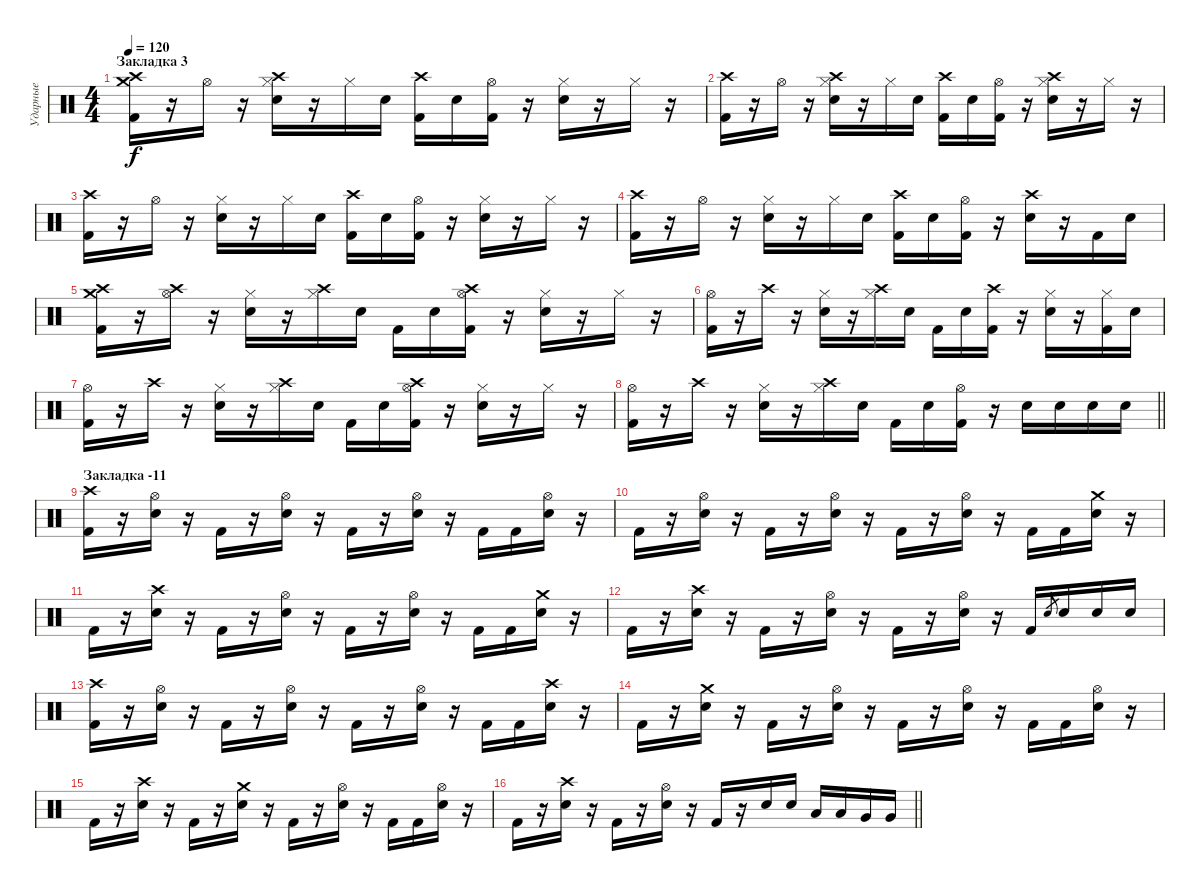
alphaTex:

\track ("Ударные" "Ударные") {instrument percussion}
\staff {score}
\articulation defaults
\ts (4 4)
\section ("" "Закладка 3")
\tempo 120
\clef neutral
\ks c
("Crash medium (hit)" "Crash high (hit)" "Kick (hit) 2").16{dy f} r.16 "Hi-Hat (open)".16 r.16 ("Crash high (hit)" "Hi-Hat (closed)" "Electric Snare (hit)").16 r.16 "Hi-Hat (closed)".16 "Electric Snare (hit)".16 ("Crash high (hit)" "Kick (hit) 2").16 "Electric Snare (hit)".16 ("Hi-Hat (open)" "Kick (hit) 2").16 r.16 ("Hi-Hat (closed)" "Electric Snare (hit)").16 r.16 "Hi-Hat (closed)".16 r.16 |
("Crash high (hit)" "Kick (hit) 2").16 r.16 "Hi-Hat (open)".16 r.16 ("Crash high (hit)" "Hi-Hat (closed)" "Electric Snare (hit)").16 r.16 "Hi-Hat (closed)".16 "Electric Snare (hit)".16 ("Crash high (hit)" "Kick (hit) 2").16 "Electric Snare (hit)".16 ("Hi-Hat (open)" "Kick (hit) 2").16 r.16 ("Crash high (hit)" "Hi-Hat (closed)" "Electric Snare (hit)").16 r.16 "Hi-Hat (closed)".16 r.16 |
("Crash high (hit)" "Kick (hit) 2").16 r.16 "Hi-Hat (open)".16 r.16 ("Hi-Hat (closed)" "Electric Snare (hit)").16 r.16 "Hi-Hat (closed)".16 "Electric Snare (hit)".16 ("Crash high (hit)" "Kick (hit) 2").16 "Electric Snare (hit)".16 ("Hi-Hat (open)" "Kick (hit) 2").16 r.16 ("Hi-Hat (closed)" "Electric Snare (hit)").16 r.16 "Hi-Hat (closed)".16 r.16 |
("Crash high (hit)" "Kick (hit) 2").16 r.16 "Hi-Hat (open)".16 r.16 ("Hi-Hat (closed)" "Electric Snare (hit)").16 r.16 "Hi-Hat (closed)".16 "Electric Snare (hit)".16 ("Crash high (hit)" "Kick (hit) 2").16 "Electric Snare (hit)".16 ("Hi-Hat (open)" "Kick (hit) 2").16 r.16 ("Crash high (hit)" "Electric Snare (hit)").16 r.16 "Kick (hit) 2".16 "Electric Snare (hit)".16 |
("Crash medium (hit)" "Crash high (hit)" "Kick (hit) 2").16 r.16 ("Crash high (hit)" "Hi-Hat (open)").16 r.16 ("Hi-Hat (closed)" "Electric Snare (hit)").16 r.16 ("Crash high (hit)" "Hi-Hat (closed)").16 "Electric Snare (hit)".16 "Kick (hit) 2".16 "Electric Snare (hit)".16 ("Crash high (hit)" "Hi-Hat (open)" "Kick (hit) 2").16 r.16 ("Hi-Hat (closed)" "Electric Snare (hit)").16 r.16 "Hi-Hat (closed)".16 r.16 |
("Hi-Hat (open)" "Kick (hit) 2").16 r.16 "Crash high (hit)".16 r.16 ("Hi-Hat (closed)" "Electric Snare (hit)").16 r.16 ("Crash high (hit)" "Hi-Hat (closed)").16 "Electric Snare (hit)".16 "Kick (hit) 2".16 "Electric Snare (hit)".16 ("Crash high (hit)" "Kick (hit) 2").16 r.16 ("Hi-Hat (closed)" "Electric Snare (hit)").16 r.16 ("Hi-Hat (closed)" "Kick (hit) 2").16 "Electric Snare (hit)".16 |
("Hi-Hat (open)" "Kick (hit) 2").16 r.16 "Crash high (hit)".16 r.16 ("Hi-Hat (closed)" "Electric Snare (hit)").16 r.16 ("Crash high (hit)" "Hi-Hat (closed)").16 "Electric Snare (hit)".16 "Kick (hit) 2".16 "Electric Snare (hit)".16 ("Crash high (hit)" "Hi-Hat (open)" "Kick (hit) 2").16 r.16 ("Hi-Hat (closed)" "Electric Snare (hit)").16 r.16 "Hi-Hat (closed)".16 r.16 |
\barLineRight lightlight
("Hi-Hat (open)" "Kick (hit) 2").16 r.16 "Crash high (hit)".16 r.16 ("Hi-Hat (closed)" "Electric Snare (hit)").16 r.16 ("Crash high (hit)" "Hi-Hat (closed)").16 "Electric Snare (hit)".16 "Kick (hit) 2".16 "Electric Snare (hit)".16 ("Hi-Hat (open)" "Kick (hit) 2").16 r.16 "Electric Snare (hit)".16 "Electric Snare (hit)".16 "Electric Snare (hit)".16 "Electric Snare (hit)".16 |
\section ("" "Закладка -11")
("Crash high (hit)" "Kick (hit) 2").16 r.16 ("Hi-Hat (open)" "Electric Snare (hit)").16 r.16 "Kick (hit) 2".16 r.16 ("Hi-Hat (open)" "Electric Snare (hit)").16 r.16 "Kick (hit) 2".16 r.16 ("Hi-Hat (open)" "Electric Snare (hit)").16 r.16 "Kick (hit) 2".16 "Kick (hit) 2".16 ("Hi-Hat (open)" "Electric Snare (hit)").16 r.16 |
"Kick (hit) 2".16 r.16 ("Hi-Hat (open)" "Electric Snare (hit)").16 r.16 "Kick (hit) 2".16 r.16 ("Hi-Hat (open)" "Electric Snare (hit)").16 r.16 "Kick (hit) 2".16 r.16 ("Hi-Hat (open)" "Electric Snare (hit)").16 r.16 "Kick (hit) 2".16 "Kick (hit) 2".16 ("Crash medium (hit)" "Electric Snare (hit)").16 r.16 |
"Kick (hit) 2".16 r.16 ("Crash high (hit)" "Electric Snare (hit)").16 r.16 "Kick (hit) 2".16 r.16 ("Hi-Hat (open)" "Electric Snare (hit)").16 r.16 "Kick (hit) 2".16 r.16 ("Hi-Hat (open)" "Electric Snare (hit)").16 r.16 "Kick (hit) 2".16 "Kick (hit) 2".16 ("Crash medium (hit)" "Electric Snare (hit)").16 r.16 |
"Kick (hit) 2".16 r.16 ("Crash high (hit)" "Electric Snare (hit)").16 r.16 "Kick (hit) 2".16 r.16 ("Hi-Hat (open)" "Electric Snare (hit)").16 r.16 "Kick (hit) 2".16 r.16 ("Hi-Hat (open)" "Electric Snare (hit)").16 r.16 "Kick (hit) 2".16 "Electric Snare (hit)".8{gr} "Electric Snare (hit)".16 "Electric Snare (hit)".16 "Electric Snare (hit)".16 |
("Crash high (hit)" "Kick (hit) 2").16 r.16 ("Hi-Hat (open)" "Electric Snare (hit)").16 r.16 "Kick (hit) 2".16 r.16 ("Hi-Hat (open)" "Electric Snare (hit)").16 r.16 "Kick (hit) 2".16 r.16 ("Hi-Hat (open)" "Electric Snare (hit)").16 r.16 "Kick (hit) 2".16 "Kick (hit) 2".16 ("Crash high (hit)" "Electric Snare (hit)").16 r.16 |
"Kick (hit) 2".16 r.16 ("Crash medium (hit)" "Electric Snare (hit)").16 r.16 "Kick (hit) 2".16 r.16 ("Hi-Hat (open)" "Electric Snare (hit)").16 r.16 "Kick (hit) 2".16 r.16 ("Hi-Hat (open)" "Electric Snare (hit)").16 r.16 "Kick (hit) 2".16 "Kick (hit) 2".16 ("Hi-Hat (open)" "Electric Snare (hit)").16 r.16 |
"Kick (hit) 2".16 r.16 ("Crash high (hit)" "Electric Snare (hit)").16 r.16 "Kick (hit) 2".16 r.16 ("Crash medium (hit)" "Electric Snare (hit)").16 r.16 "Kick (hit) 2".16 r.16 ("Hi-Hat (open)" "Electric Snare (hit)").16 r.16 "Kick (hit) 2".16 "Kick (hit) 2".16 ("Hi-Hat (open)" "Electric Snare (hit)").16 r.16 |
\barLineRight lightlight "Kick (hit) 2".16
r.16 ("Crash high (hit)" "Electric Snare (hit)").16 r.16 "Kick (hit) 2".16 r.16 ("Hi-Hat (open)" "Electric Snare (hit)").16 r.16 "Kick (hit) 2".16 r.16 "Electric Snare (hit)".16 "Electric Snare (hit)".16 "Low Tom (hit)".16 "Low Tom (hit)".16 "Very Low Tom (hit)".16 "Very Low Tom (hit)".16
